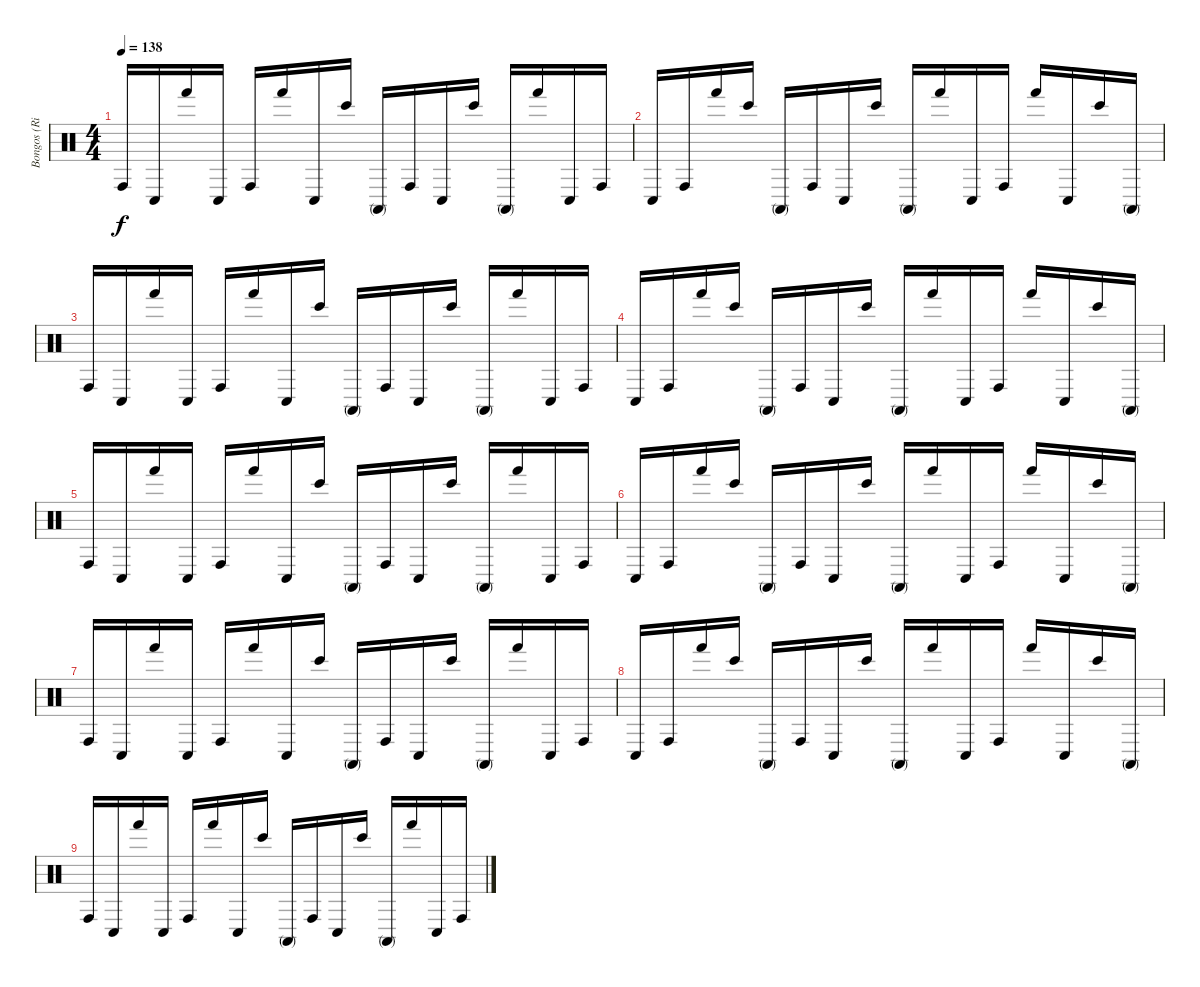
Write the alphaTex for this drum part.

\track ("Bongos (Ringo Starr)" "Bongos (Ri") {instrument percussion}
\staff {score}
\articulation defaults
\ts (4 4)
\tempo 138
\clef neutral
\ks c "Conga high (hit)".16{dy f} "Conga low (hit)".16 "Hand (hit)".16 "Conga low (hit)".16 "Conga high (hit)".16 "Hand (hit)".16 "Conga low (hit)".16 "Bongo High (hit)".16 "Conga high (mute)".16 "Conga high (hit)".16 "Conga low (hit)".16 "Bongo High (hit)".16 "Conga high (mute)".16 "Hand (hit)".16 "Conga low (hit)".16 "Conga high (hit)".16
|
"Conga low (hit)".16 "Conga high (hit)".16 "Hand (hit)".16 "Bongo High (hit)".16 "Conga high (mute)".16 "Conga high (hit)".16 "Conga low (hit)".16 "Bongo High (hit)".16 "Conga high (mute)".16 "Hand (hit)".16 "Conga low (hit)".16 "Conga high (hit)".16 "Hand (hit)".16 "Conga low (hit)".16 "Bongo High (hit)".16 "Conga high (mute)".16 |
"Conga high (hit)".16 "Conga low (hit)".16 "Hand (hit)".16 "Conga low (hit)".16 "Conga high (hit)".16 "Hand (hit)".16 "Conga low (hit)".16 "Bongo High (hit)".16 "Conga high (mute)".16 "Conga high (hit)".16 "Conga low (hit)".16 "Bongo High (hit)".16 "Conga high (mute)".16 "Hand (hit)".16 "Conga low (hit)".16 "Conga high (hit)".16 |
"Conga low (hit)".16 "Conga high (hit)".16 "Hand (hit)".16 "Bongo High (hit)".16 "Conga high (mute)".16 "Conga high (hit)".16 "Conga low (hit)".16 "Bongo High (hit)".16 "Conga high (mute)".16 "Hand (hit)".16 "Conga low (hit)".16 "Conga high (hit)".16 "Hand (hit)".16 "Conga low (hit)".16 "Bongo High (hit)".16 "Conga high (mute)".16 |
"Conga high (hit)".16 "Conga low (hit)".16 "Hand (hit)".16 "Conga low (hit)".16 "Conga high (hit)".16 "Hand (hit)".16 "Conga low (hit)".16 "Bongo High (hit)".16 "Conga high (mute)".16 "Conga high (hit)".16 "Conga low (hit)".16 "Bongo High (hit)".16 "Conga high (mute)".16 "Hand (hit)".16 "Conga low (hit)".16 "Conga high (hit)".16 |
"Conga low (hit)".16 "Conga high (hit)".16 "Hand (hit)".16 "Bongo High (hit)".16 "Conga high (mute)".16 "Conga high (hit)".16 "Conga low (hit)".16 "Bongo High (hit)".16 "Conga high (mute)".16 "Hand (hit)".16 "Conga low (hit)".16 "Conga high (hit)".16 "Hand (hit)".16 "Conga low (hit)".16 "Bongo High (hit)".16 "Conga high (mute)".16 |
"Conga high (hit)".16 "Conga low (hit)".16 "Hand (hit)".16 "Conga low (hit)".16 "Conga high (hit)".16 "Hand (hit)".16 "Conga low (hit)".16 "Bongo High (hit)".16 "Conga high (mute)".16 "Conga high (hit)".16 "Conga low (hit)".16 "Bongo High (hit)".16 "Conga high (mute)".16 "Hand (hit)".16 "Conga low (hit)".16 "Conga high (hit)".16 |
"Conga low (hit)".16 "Conga high (hit)".16 "Hand (hit)".16 "Bongo High (hit)".16 "Conga high (mute)".16 "Conga high (hit)".16 "Conga low (hit)".16 "Bongo High (hit)".16 "Conga high (mute)".16 "Hand (hit)".16 "Conga low (hit)".16 "Conga high (hit)".16 "Hand (hit)".16 "Conga low (hit)".16 "Bongo High (hit)".16 "Conga high (mute)".16 |
"Conga high (hit)".16 "Conga low (hit)".16 "Hand (hit)".16 "Conga low (hit)".16 "Conga high (hit)".16 "Hand (hit)".16 "Conga low (hit)".16 "Bongo High (hit)".16 "Conga high (mute)".16 "Conga high (hit)".16 "Conga low (hit)".16 "Bongo High (hit)".16 "Conga high (mute)".16 "Hand (hit)".16 "Conga low (hit)".16 "Conga high (hit)".16
